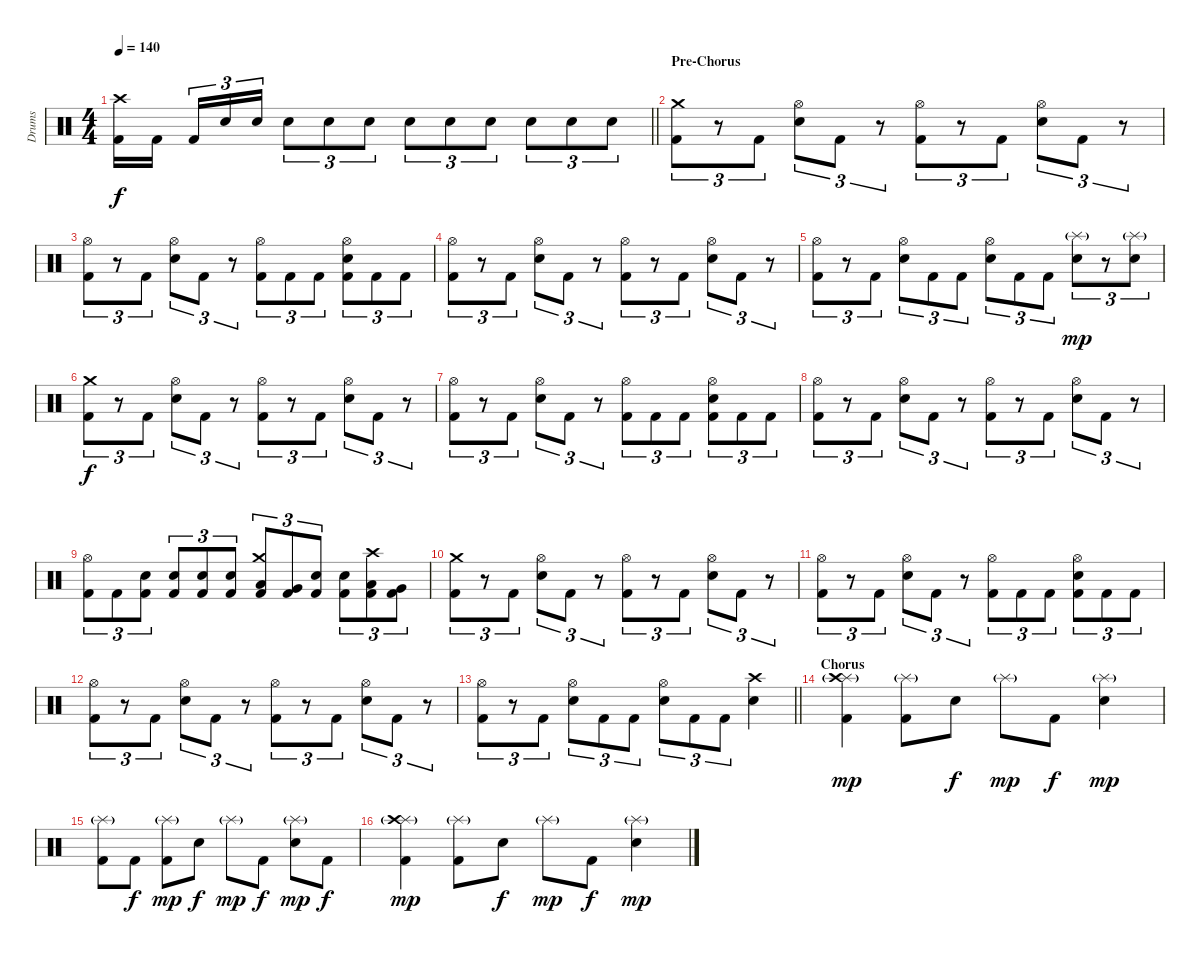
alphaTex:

\track ("Drums" "Drums") {instrument percussion}
\staff {score}
\articulation defaults
\ts (4 4)
\tempo 140
\clef neutral
\barLineRight lightlight
\ks c
("Crash high (hit)" "Kick (hit) 2").16{dy f} "Kick (hit) 2".16{beam splitsecondary} "Kick (hit) 2".16{tu (3 2)} "Electric Snare (hit)".16{tu (3 2)} "Electric Snare (hit)".16{tu (3 2)} "Electric Snare (hit)".8{tu (3 2)} "Electric Snare (hit)".8{tu (3 2)} "Electric Snare (hit)".8{tu (3 2)} "Electric Snare (hit)".8{tu (3 2)} "Electric Snare (hit)".8{tu (3 2)} "Electric Snare (hit)".8{tu (3 2)} "Electric Snare (hit)".8{tu (3 2)} "Electric Snare (hit)".8{tu (3 2)} "Electric Snare (hit)".8{tu (3 2)} |
\section ("" "Pre-Chorus")
("Crash medium (hit)" "Kick (hit) 2").8{tu (3 2)} r.8{tu (3 2)} "Kick (hit) 2".8{tu (3 2)} ("Hi-Hat (open)" "Electric Snare (hit)").8{tu (3 2)} "Kick (hit) 2".8{tu (3 2)} r.8{tu (3 2)} ("Hi-Hat (open)" "Kick (hit) 2").8{tu (3 2)} r.8{tu (3 2)} "Kick (hit) 2".8{tu (3 2)} ("Hi-Hat (open)" "Electric Snare (hit)").8{tu (3 2)} "Kick (hit) 2".8{tu (3 2)} r.8{tu (3 2)} |
("Hi-Hat (open)" "Kick (hit) 2").8{tu (3 2)} r.8{tu (3 2)} "Kick (hit) 2".8{tu (3 2)} ("Hi-Hat (open)" "Electric Snare (hit)").8{tu (3 2)} "Kick (hit) 2".8{tu (3 2)} r.8{tu (3 2)} ("Hi-Hat (open)" "Kick (hit) 2").8{tu (3 2)} "Kick (hit) 2".8{tu (3 2)} "Kick (hit) 2".8{tu (3 2)} ("Hi-Hat (open)" "Electric Snare (hit)" "Kick (hit) 2").8{tu (3 2)} "Kick (hit) 2".8{tu (3 2)} "Kick (hit) 2".8{tu (3 2)} |
("Hi-Hat (open)" "Kick (hit) 2").8{tu (3 2)} r.8{tu (3 2)} "Kick (hit) 2".8{tu (3 2)} ("Hi-Hat (open)" "Electric Snare (hit)").8{tu (3 2)} "Kick (hit) 2".8{tu (3 2)} r.8{tu (3 2)} ("Hi-Hat (open)" "Kick (hit) 2").8{tu (3 2)} r.8{tu (3 2)} "Kick (hit) 2".8{tu (3 2)} ("Hi-Hat (open)" "Electric Snare (hit)").8{tu (3 2)} "Kick (hit) 2".8{tu (3 2)} r.8{tu (3 2)} |
("Hi-Hat (open)" "Kick (hit) 2").8{tu (3 2)} r.8{tu (3 2)} "Kick (hit) 2".8{tu (3 2)} ("Hi-Hat (open)" "Electric Snare (hit)").8{tu (3 2)} "Kick (hit) 2".8{tu (3 2)} "Kick (hit) 2".8{tu (3 2)} ("Hi-Hat (open)" "Electric Snare (hit)").8{tu (3 2)} "Kick (hit) 2".8{tu (3 2)} "Kick (hit) 2".8{tu (3 2)} ("Splash (hit)"{g} "Electric Snare (hit)").8{tu (3 2) dy mp} r.8{tu (3 2)} ("Splash (hit)"{g} "Electric Snare (hit)").8{tu (3 2)} |
("Crash medium (hit)" "Kick (hit) 2").8{tu (3 2) dy f} r.8{tu (3 2)} "Kick (hit) 2".8{tu (3 2)} ("Hi-Hat (open)" "Electric Snare (hit)").8{tu (3 2)} "Kick (hit) 2".8{tu (3 2)} r.8{tu (3 2)} ("Hi-Hat (open)" "Kick (hit) 2").8{tu (3 2)} r.8{tu (3 2)} "Kick (hit) 2".8{tu (3 2)} ("Hi-Hat (open)" "Electric Snare (hit)").8{tu (3 2)} "Kick (hit) 2".8{tu (3 2)} r.8{tu (3 2)} |
("Hi-Hat (open)" "Kick (hit) 2").8{tu (3 2)} r.8{tu (3 2)} "Kick (hit) 2".8{tu (3 2)} ("Hi-Hat (open)" "Electric Snare (hit)").8{tu (3 2)} "Kick (hit) 2".8{tu (3 2)} r.8{tu (3 2)} ("Hi-Hat (open)" "Kick (hit) 2").8{tu (3 2)} "Kick (hit) 2".8{tu (3 2)} "Kick (hit) 2".8{tu (3 2)} ("Hi-Hat (open)" "Electric Snare (hit)" "Kick (hit) 2").8{tu (3 2)} "Kick (hit) 2".8{tu (3 2)} "Kick (hit) 2".8{tu (3 2)} |
("Hi-Hat (open)" "Kick (hit) 2").8{tu (3 2)} r.8{tu (3 2)} "Kick (hit) 2".8{tu (3 2)} ("Hi-Hat (open)" "Electric Snare (hit)").8{tu (3 2)} "Kick (hit) 2".8{tu (3 2)} r.8{tu (3 2)} ("Hi-Hat (open)" "Kick (hit) 2").8{tu (3 2)} r.8{tu (3 2)} "Kick (hit) 2".8{tu (3 2)} ("Hi-Hat (open)" "Electric Snare (hit)").8{tu (3 2)} "Kick (hit) 2".8{tu (3 2)} r.8{tu (3 2)} |
("Hi-Hat (open)" "Kick (hit) 2").8{tu (3 2)} "Kick (hit) 2".8{tu (3 2)} ("Electric Snare (hit)" "Kick (hit) 2").8{tu (3 2)} ("Electric Snare (hit)" "Kick (hit) 2").8{tu (3 2)} ("Electric Snare (hit)" "Kick (hit) 2").8{tu (3 2)} ("Electric Snare (hit)" "Kick (hit) 2").8{tu (3 2)} ("Crash medium (hit)" "Low Tom (hit)" "Kick (hit) 2").8{tu (3 2)} ("Very Low Tom (hit)" "Kick (hit) 2").8{tu (3 2)} ("Electric Snare (hit)" "Kick (hit) 2").8{tu (3 2)} ("Electric Snare (hit)" "Kick (hit) 2").8{tu (3 2)} ("Crash high (hit)" "Low Tom (hit)" "Kick (hit) 2").8{tu (3 2)} ("Very Low Tom (hit)" "Kick (hit) 2").8{tu (3 2)} |
("Crash medium (hit)" "Kick (hit) 2").8{tu (3 2)} r.8{tu (3 2)} "Kick (hit) 2".8{tu (3 2)} ("Hi-Hat (open)" "Electric Snare (hit)").8{tu (3 2)} "Kick (hit) 2".8{tu (3 2)} r.8{tu (3 2)} ("Hi-Hat (open)" "Kick (hit) 2").8{tu (3 2)} r.8{tu (3 2)} "Kick (hit) 2".8{tu (3 2)} ("Hi-Hat (open)" "Electric Snare (hit)").8{tu (3 2)} "Kick (hit) 2".8{tu (3 2)} r.8{tu (3 2)} |
("Hi-Hat (open)" "Kick (hit) 2").8{tu (3 2)} r.8{tu (3 2)} "Kick (hit) 2".8{tu (3 2)} ("Hi-Hat (open)" "Electric Snare (hit)").8{tu (3 2)} "Kick (hit) 2".8{tu (3 2)} r.8{tu (3 2)} ("Hi-Hat (open)" "Kick (hit) 2").8{tu (3 2)} "Kick (hit) 2".8{tu (3 2)} "Kick (hit) 2".8{tu (3 2)} ("Hi-Hat (open)" "Electric Snare (hit)" "Kick (hit) 2").8{tu (3 2)} "Kick (hit) 2".8{tu (3 2)} "Kick (hit) 2".8{tu (3 2)} |
("Hi-Hat (open)" "Kick (hit) 2").8{tu (3 2)} r.8{tu (3 2)} "Kick (hit) 2".8{tu (3 2)} ("Hi-Hat (open)" "Electric Snare (hit)").8{tu (3 2)} "Kick (hit) 2".8{tu (3 2)} r.8{tu (3 2)} ("Hi-Hat (open)" "Kick (hit) 2").8{tu (3 2)} r.8{tu (3 2)} "Kick (hit) 2".8{tu (3 2)} ("Hi-Hat (open)" "Electric Snare (hit)").8{tu (3 2)} "Kick (hit) 2".8{tu (3 2)} r.8{tu (3 2)} |
\barLineRight lightlight
("Hi-Hat (open)" "Kick (hit) 2").8{tu (3 2)} r.8{tu (3 2)} "Kick (hit) 2".8{tu (3 2)} ("Hi-Hat (open)" "Electric Snare (hit)").8{tu (3 2)} "Kick (hit) 2".8{tu (3 2)} "Kick (hit) 2".8{tu (3 2)} ("Hi-Hat (open)" "Electric Snare (hit)").8{tu (3 2)} "Kick (hit) 2".8{tu (3 2)} "Kick (hit) 2".8{tu (3 2)} ("Crash high (hit)" "Electric Snare (hit)").4 |
\section ("" "Chorus")
("Splash (hit)"{g} "Crash high (hit)" "Kick (hit) 2").4{dy mp} ("Splash (hit)"{g} "Kick (hit) 2").8 "Electric Snare (hit)".8{dy f} "Splash (hit)"{g}.8{dy mp} "Kick (hit) 2".8{dy f} ("Splash (hit)"{g} "Electric Snare (hit)").4{dy mp} |
("Splash (hit)"{g} "Kick (hit) 2").8 "Kick (hit) 2".8{dy f} ("Splash (hit)"{g} "Kick (hit) 2").8{dy mp} "Electric Snare (hit)".8{dy f} "Splash (hit)"{g}.8{dy mp} "Kick (hit) 2".8{dy f} ("Splash (hit)"{g} "Electric Snare (hit)").8{dy mp} "Kick (hit) 2".8{dy f} |
("Splash (hit)"{g} "Crash high (hit)" "Kick (hit) 2").4{dy mp} ("Splash (hit)"{g} "Kick (hit) 2").8 "Electric Snare (hit)".8{dy f} "Splash (hit)"{g}.8{dy mp} "Kick (hit) 2".8{dy f} ("Splash (hit)"{g} "Electric Snare (hit)").4{dy mp}
